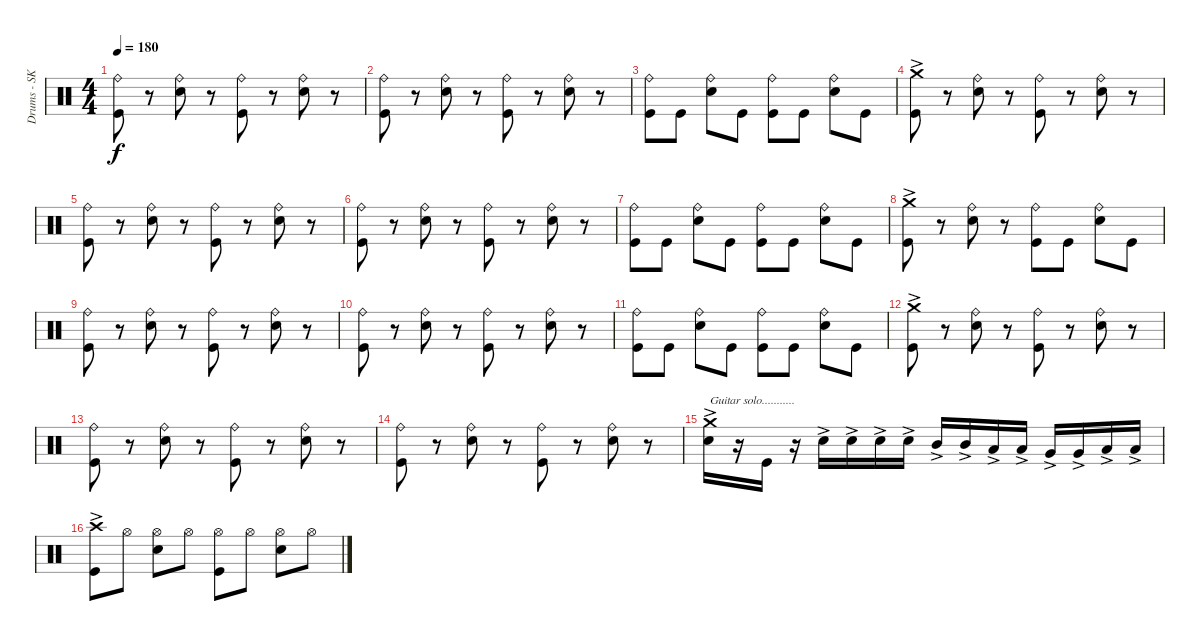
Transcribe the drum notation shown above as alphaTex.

\track ("Drums - SK" "Drums - SK") {instrument percussion}
\staff {score}
\articulation defaults
\ts (4 4)
\tempo 180
\clef neutral
\ks c
("Ride (bell)" "Kick (hit)").8{dy f} r.8 ("Ride (bell)" "Snare (hit) 2").8 r.8 ("Ride (bell)" "Kick (hit)").8 r.8 ("Ride (bell)" "Snare (hit) 2").8 r.8 |
("Ride (bell)" "Kick (hit)").8 r.8 ("Ride (bell)" "Snare (hit) 2").8 r.8 ("Ride (bell)" "Kick (hit)").8 r.8 ("Ride (bell)" "Snare (hit) 2").8 r.8 |
("Ride (bell)" "Kick (hit)").8 "Kick (hit)".8 ("Ride (bell)" "Snare (hit) 2").8 "Kick (hit)".8 ("Ride (bell)" "Kick (hit)").8 "Kick (hit)".8 ("Ride (bell)" "Snare (hit) 2").8 "Kick (hit)".8 |
("Crash medium (hit)"{ac} "Kick (hit)"{ac}).8 r.8 ("Ride (bell)" "Snare (hit) 2").8 r.8 ("Ride (bell)" "Kick (hit)").8 r.8 ("Ride (bell)" "Snare (hit) 2").8 r.8 |
("Ride (bell)" "Kick (hit)").8 r.8 ("Ride (bell)" "Snare (hit) 2").8 r.8 ("Ride (bell)" "Kick (hit)").8 r.8 ("Ride (bell)" "Snare (hit) 2").8 r.8 |
("Ride (bell)" "Kick (hit)").8 r.8 ("Ride (bell)" "Snare (hit) 2").8 r.8 ("Ride (bell)" "Kick (hit)").8 r.8 ("Ride (bell)" "Snare (hit) 2").8 r.8 |
("Ride (bell)" "Kick (hit)").8 "Kick (hit)".8 ("Ride (bell)" "Snare (hit) 2").8 "Kick (hit)".8 ("Ride (bell)" "Kick (hit)").8 "Kick (hit)".8 ("Ride (bell)" "Snare (hit) 2").8 "Kick (hit)".8 |
("Crash medium (hit)"{ac} "Kick (hit)"{ac}).8 r.8 ("Ride (bell)" "Snare (hit) 2").8 r.8 ("Ride (bell)" "Kick (hit)").8 "Kick (hit)".8 ("Ride (bell)" "Snare (hit) 2").8 "Kick (hit)".8 |
("Ride (bell)" "Kick (hit)").8 r.8 ("Ride (bell)" "Snare (hit) 2").8 r.8 ("Ride (bell)" "Kick (hit)").8 r.8 ("Ride (bell)" "Snare (hit) 2").8 r.8 |
("Ride (bell)" "Kick (hit)").8 r.8 ("Ride (bell)" "Snare (hit) 2").8 r.8 ("Ride (bell)" "Kick (hit)").8 r.8 ("Ride (bell)" "Snare (hit) 2").8 r.8 |
("Ride (bell)" "Kick (hit)").8 "Kick (hit)".8 ("Ride (bell)" "Snare (hit) 2").8 "Kick (hit)".8 ("Ride (bell)" "Kick (hit)").8 "Kick (hit)".8 ("Ride (bell)" "Snare (hit) 2").8 "Kick (hit)".8 |
("Crash medium (hit)"{ac} "Kick (hit)"{ac}).8 r.8 ("Ride (bell)" "Snare (hit) 2").8 r.8 ("Ride (bell)" "Kick (hit)").8 r.8 ("Ride (bell)" "Snare (hit) 2").8 r.8 |
("Ride (bell)" "Kick (hit)").8 r.8 ("Ride (bell)" "Snare (hit) 2").8 r.8 ("Ride (bell)" "Kick (hit)").8 r.8 ("Ride (bell)" "Snare (hit) 2").8 r.8 |
("Ride (bell)" "Kick (hit)").8 r.8 ("Ride (bell)" "Snare (hit) 2").8 r.8 ("Ride (bell)" "Kick (hit)").8 r.8 ("Ride (bell)" "Snare (hit) 2").8 r.8 |
("Snare (hit) 2"{ac} "Crash medium (hit)"{ac}).16{txt "Guitar solo..........."} r.16 "Kick (hit)".16 r.16 "Snare (hit) 2"{ac}.16 "Snare (hit) 2"{ac}.16 "Snare (hit) 2"{ac}.16 "Snare (hit) 2"{ac}.16 "Mid Tom (hit)"{ac}.16 "Mid Tom (hit)"{ac}.16 "Low Tom (hit)"{ac}.16 "Low Tom (hit)"{ac}.16 "Very Low Tom (hit)"{ac}.16 "Very Low Tom (hit)"{ac}.16 "Low Floor Tom (hit)"{ac}.16 "Low Floor Tom (hit)"{ac}.16 |
("Crash high (hit)"{ac} "Kick (hit)"{ac}).8 "Hi-Hat (open)".8 ("Hi-Hat (open)" "Snare (hit) 2").8 "Hi-Hat (open)".8 ("Kick (hit)" "Hi-Hat (open)").8 "Hi-Hat (open)".8 ("Hi-Hat (open)" "Snare (hit) 2").8 "Hi-Hat (open)".8
